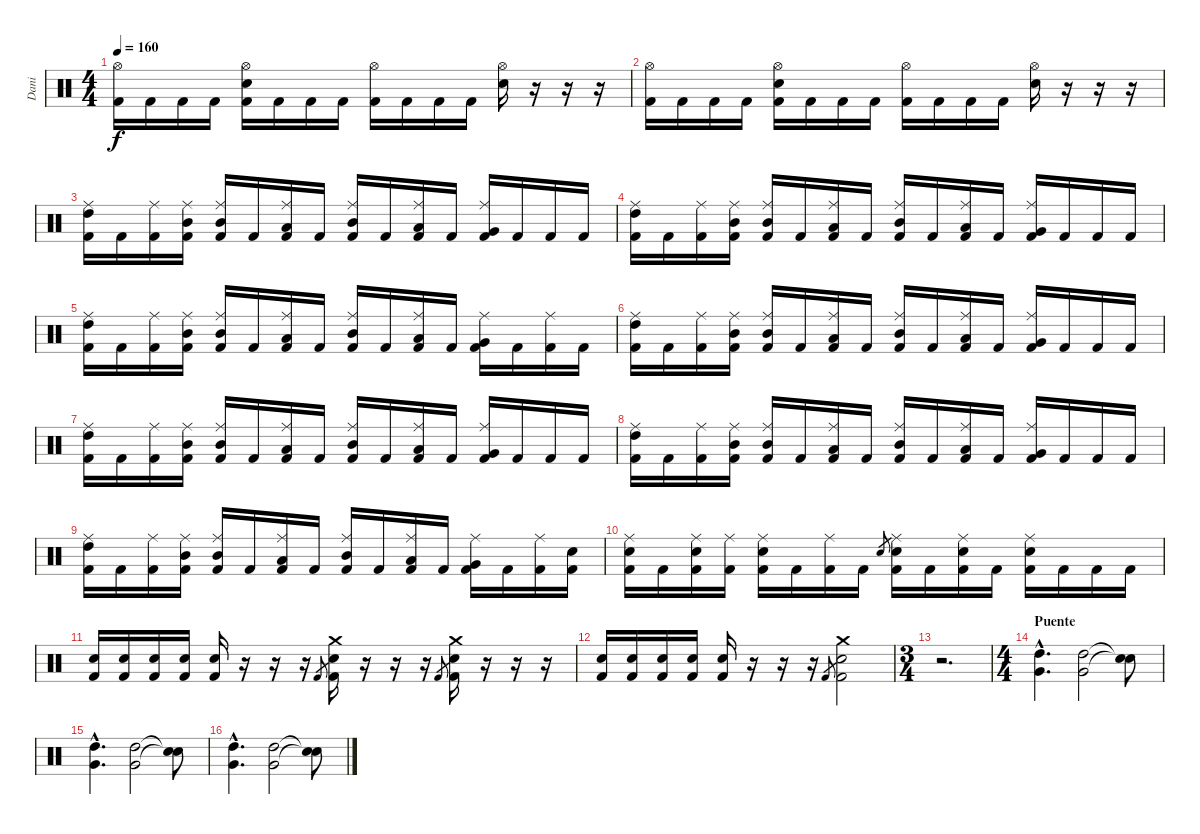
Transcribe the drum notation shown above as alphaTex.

\track ("Dani" "Dani") {instrument percussion}
\staff {score}
\articulation defaults
\ts (4 4)
\tempo 160
\clef neutral
\ks c
("Hi-Hat (open)" "Kick (hit) 2").16{dy f} "Kick (hit) 2".16 "Kick (hit) 2".16 "Kick (hit) 2".16 ("Hi-Hat (open)" "Electric Snare (hit)" "Kick (hit) 2").16 "Kick (hit) 2".16 "Kick (hit) 2".16 "Kick (hit) 2".16 ("Hi-Hat (open)" "Kick (hit) 2").16 "Kick (hit) 2".16 "Kick (hit) 2".16 "Kick (hit) 2".16 ("Hi-Hat (open)" "Electric Snare (hit)").16 r.16 r.16 r.16 |
("Hi-Hat (open)" "Kick (hit) 2").16 "Kick (hit) 2".16 "Kick (hit) 2".16 "Kick (hit) 2".16 ("Hi-Hat (open)" "Electric Snare (hit)" "Kick (hit) 2").16 "Kick (hit) 2".16 "Kick (hit) 2".16 "Kick (hit) 2".16 ("Hi-Hat (open)" "Kick (hit) 2").16 "Kick (hit) 2".16 "Kick (hit) 2".16 "Kick (hit) 2".16 ("Hi-Hat (open)" "Electric Snare (hit)").16 r.16 r.16 r.16 |
("Ride (middle)" "High Tom (hit)" "Kick (hit) 2").16 "Kick (hit) 2".16 ("Ride (middle)" "Kick (hit) 2").16 ("Ride (middle)" "Mid Tom (hit)" "Kick (hit) 2").16 ("Ride (middle)" "Mid Tom (hit)" "Kick (hit) 2").16 "Kick (hit) 2".16 ("Ride (middle)" "Low Tom (hit)" "Kick (hit) 2").16 "Kick (hit) 2".16 ("Ride (middle)" "Mid Tom (hit)" "Kick (hit) 2").16 "Kick (hit) 2".16 ("Ride (middle)" "Low Tom (hit)" "Kick (hit) 2").16 "Kick (hit) 2".16 ("Ride (middle)" "Very Low Tom (hit)" "Kick (hit) 2").16 "Kick (hit) 2".16 "Kick (hit) 2".16 "Kick (hit) 2".16 |
("Ride (middle)" "High Tom (hit)" "Kick (hit) 2").16 "Kick (hit) 2".16 ("Ride (middle)" "Kick (hit) 2").16 ("Ride (middle)" "Mid Tom (hit)" "Kick (hit) 2").16 ("Ride (middle)" "Mid Tom (hit)" "Kick (hit) 2").16 "Kick (hit) 2".16 ("Ride (middle)" "Low Tom (hit)" "Kick (hit) 2").16 "Kick (hit) 2".16 ("Ride (middle)" "Mid Tom (hit)" "Kick (hit) 2").16 "Kick (hit) 2".16 ("Ride (middle)" "Low Tom (hit)" "Kick (hit) 2").16 "Kick (hit) 2".16 ("Ride (middle)" "Very Low Tom (hit)" "Kick (hit) 2").16 "Kick (hit) 2".16 "Kick (hit) 2".16 "Kick (hit) 2".16 |
("Ride (middle)" "High Tom (hit)" "Kick (hit) 2").16 "Kick (hit) 2".16 ("Ride (middle)" "Kick (hit) 2").16 ("Ride (middle)" "Mid Tom (hit)" "Kick (hit) 2").16 ("Ride (middle)" "Mid Tom (hit)" "Kick (hit) 2").16 "Kick (hit) 2".16 ("Ride (middle)" "Low Tom (hit)" "Kick (hit) 2").16 "Kick (hit) 2".16 ("Ride (middle)" "Mid Tom (hit)" "Kick (hit) 2").16 "Kick (hit) 2".16 ("Ride (middle)" "Low Tom (hit)" "Kick (hit) 2").16 "Kick (hit) 2".16 ("Ride (middle)" "Very Low Tom (hit)" "Kick (hit) 2").16 "Kick (hit) 2".16 ("Ride (middle)" "Kick (hit) 2").16 "Kick (hit) 2".16 |
("Ride (middle)" "High Tom (hit)" "Kick (hit) 2").16 "Kick (hit) 2".16 ("Ride (middle)" "Kick (hit) 2").16 ("Ride (middle)" "Mid Tom (hit)" "Kick (hit) 2").16 ("Ride (middle)" "Mid Tom (hit)" "Kick (hit) 2").16 "Kick (hit) 2".16 ("Ride (middle)" "Low Tom (hit)" "Kick (hit) 2").16 "Kick (hit) 2".16 ("Ride (middle)" "Mid Tom (hit)" "Kick (hit) 2").16 "Kick (hit) 2".16 ("Ride (middle)" "Low Tom (hit)" "Kick (hit) 2").16 "Kick (hit) 2".16 ("Ride (middle)" "Very Low Tom (hit)" "Kick (hit) 2").16 "Kick (hit) 2".16 "Kick (hit) 2".16 "Kick (hit) 2".16 |
("Ride (middle)" "High Tom (hit)" "Kick (hit) 2").16 "Kick (hit) 2".16 ("Ride (middle)" "Kick (hit) 2").16 ("Ride (middle)" "Mid Tom (hit)" "Kick (hit) 2").16 ("Ride (middle)" "Mid Tom (hit)" "Kick (hit) 2").16 "Kick (hit) 2".16 ("Ride (middle)" "Low Tom (hit)" "Kick (hit) 2").16 "Kick (hit) 2".16 ("Ride (middle)" "Mid Tom (hit)" "Kick (hit) 2").16 "Kick (hit) 2".16 ("Ride (middle)" "Low Tom (hit)" "Kick (hit) 2").16 "Kick (hit) 2".16 ("Ride (middle)" "Very Low Tom (hit)" "Kick (hit) 2").16 "Kick (hit) 2".16 "Kick (hit) 2".16 "Kick (hit) 2".16 |
("Ride (middle)" "High Tom (hit)" "Kick (hit) 2").16 "Kick (hit) 2".16 ("Ride (middle)" "Kick (hit) 2").16 ("Ride (middle)" "Mid Tom (hit)" "Kick (hit) 2").16 ("Ride (middle)" "Mid Tom (hit)" "Kick (hit) 2").16 "Kick (hit) 2".16 ("Ride (middle)" "Low Tom (hit)" "Kick (hit) 2").16 "Kick (hit) 2".16 ("Ride (middle)" "Mid Tom (hit)" "Kick (hit) 2").16 "Kick (hit) 2".16 ("Ride (middle)" "Low Tom (hit)" "Kick (hit) 2").16 "Kick (hit) 2".16 ("Ride (middle)" "Very Low Tom (hit)" "Kick (hit) 2").16 "Kick (hit) 2".16 "Kick (hit) 2".16 "Kick (hit) 2".16 |
("Ride (middle)" "High Tom (hit)" "Kick (hit) 2").16 "Kick (hit) 2".16 ("Ride (middle)" "Kick (hit) 2").16 ("Ride (middle)" "Mid Tom (hit)" "Kick (hit) 2").16 ("Ride (middle)" "Mid Tom (hit)" "Kick (hit) 2").16 "Kick (hit) 2".16 ("Ride (middle)" "Low Tom (hit)" "Kick (hit) 2").16 "Kick (hit) 2".16 ("Ride (middle)" "Mid Tom (hit)" "Kick (hit) 2").16 "Kick (hit) 2".16 ("Ride (middle)" "Low Tom (hit)" "Kick (hit) 2").16 "Kick (hit) 2".16 ("Ride (middle)" "Very Low Tom (hit)" "Kick (hit) 2").16 "Kick (hit) 2".16 ("Ride (middle)" "Kick (hit) 2").16 ("Electric Snare (hit)" "Kick (hit) 2").16 |
("Ride (middle)" "Electric Snare (hit)" "Kick (hit) 2").16 "Kick (hit) 2".16 ("Ride (middle)" "Electric Snare (hit)" "Kick (hit) 2").16 ("Ride (middle)" "Kick (hit) 2").16 ("Ride (middle)" "Electric Snare (hit)" "Kick (hit) 2").16 "Kick (hit) 2".16 ("Ride (middle)" "Kick (hit) 2").16 "Kick (hit) 2".16 "Electric Snare (hit)".8{gr} ("Ride (middle)" "Electric Snare (hit)" "Kick (hit) 2").16 "Kick (hit) 2".16 ("Ride (middle)" "Electric Snare (hit)" "Kick (hit) 2").16 "Kick (hit) 2".16 ("Ride (middle)" "Electric Snare (hit)" "Kick (hit) 2").16 "Kick (hit) 2".16 "Kick (hit) 2".16 "Kick (hit) 2".16 |
("Electric Snare (hit)" "Kick (hit) 2").16 ("Electric Snare (hit)" "Kick (hit) 2").16 ("Electric Snare (hit)" "Kick (hit) 2").16 ("Electric Snare (hit)" "Kick (hit) 2").16 ("Electric Snare (hit)" "Kick (hit) 2").16 r.16 r.16 r.16 "Kick (hit) 2".8{gr} ("Crash medium (hit)" "Electric Snare (hit)" "Kick (hit) 2").16 r.16 r.16 r.16 "Kick (hit) 2".8{gr} ("Crash medium (hit)" "Electric Snare (hit)" "Kick (hit) 2").16 r.16 r.16 r.16 |
("Electric Snare (hit)" "Kick (hit) 2").16 ("Electric Snare (hit)" "Kick (hit) 2").16 ("Electric Snare (hit)" "Kick (hit) 2").16 ("Electric Snare (hit)" "Kick (hit) 2").16 ("Electric Snare (hit)" "Kick (hit) 2").16 r.16 r.16 r.16 "Kick (hit) 2".8{gr} ("Crash medium (hit)" "Electric Snare (hit)" "Kick (hit) 2").2 |
\ts (3 4)
r.2{d} |
\ts (4 4)
\section ("" "Puente")
("High Tom (hit)"{hac} "Very Low Tom (hit)"{hac}).4{d} ("High Tom (hit)" "Very Low Tom (hit)").2 ("Snare (hit)"{t} "Snare (hit)"{t}).8 |
("High Tom (hit)"{hac} "Very Low Tom (hit)"{hac}).4{d} ("High Tom (hit)" "Very Low Tom (hit)").2 ("Snare (hit)"{t} "Snare (hit)"{t}).8 |
("High Tom (hit)"{hac} "Very Low Tom (hit)"{hac}).4{d} ("High Tom (hit)" "Very Low Tom (hit)").2 ("Snare (hit)"{t} "Snare (hit)"{t}).8
